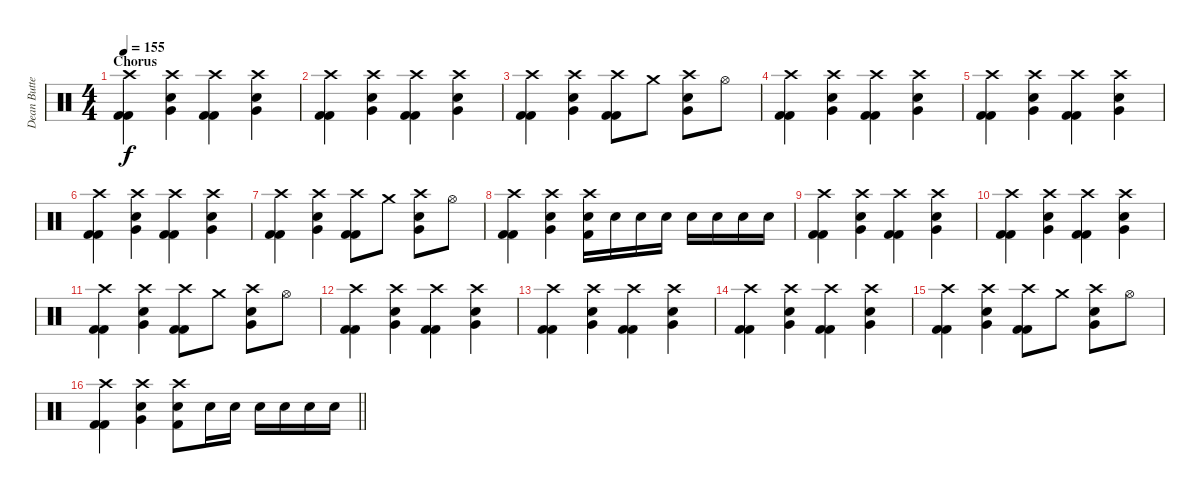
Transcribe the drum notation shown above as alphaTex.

\track ("Dean Butterworth [Drums]" "Dean Butte") {solo instrument percussion}
\staff {score}
\articulation defaults
\ts (4 4)
\section ("" "Chorus")
\tempo 155
\clef neutral
\ks c
("Crash high (hit)" "Kick (hit) 2" "Kick (hit) 2").4{dy f} ("Crash high (hit)" "Very Low Tom (hit)" "Electric Snare (hit)").4 ("Crash high (hit)" "Kick (hit) 2" "Kick (hit) 2").4 ("Crash high (hit)" "Very Low Tom (hit)" "Electric Snare (hit)").4 |
("Crash high (hit)" "Kick (hit) 2" "Kick (hit) 2").4 ("Crash high (hit)" "Very Low Tom (hit)" "Electric Snare (hit)").4 ("Crash high (hit)" "Kick (hit) 2" "Kick (hit) 2").4 ("Crash high (hit)" "Very Low Tom (hit)" "Electric Snare (hit)").4 |
("Crash high (hit)" "Kick (hit) 2" "Kick (hit) 2").4 ("Crash high (hit)" "Very Low Tom (hit)" "Electric Snare (hit)").4 ("Crash high (hit)" "Kick (hit) 2" "Kick (hit) 2").8 "Crash medium (hit)".8 ("Crash high (hit)" "Very Low Tom (hit)" "Electric Snare (hit)").8 "Hi-Hat (open)".8 |
("Crash high (hit)" "Kick (hit) 2" "Kick (hit) 2").4 ("Crash high (hit)" "Very Low Tom (hit)" "Electric Snare (hit)").4 ("Crash high (hit)" "Kick (hit) 2" "Kick (hit) 2").4 ("Crash high (hit)" "Very Low Tom (hit)" "Electric Snare (hit)").4 |
("Crash high (hit)" "Kick (hit) 2" "Kick (hit) 2").4 ("Crash high (hit)" "Very Low Tom (hit)" "Electric Snare (hit)").4 ("Crash high (hit)" "Kick (hit) 2" "Kick (hit) 2").4 ("Crash high (hit)" "Very Low Tom (hit)" "Electric Snare (hit)").4 |
("Crash high (hit)" "Kick (hit) 2" "Kick (hit) 2").4 ("Crash high (hit)" "Very Low Tom (hit)" "Electric Snare (hit)").4 ("Crash high (hit)" "Kick (hit) 2" "Kick (hit) 2").4 ("Crash high (hit)" "Very Low Tom (hit)" "Electric Snare (hit)").4 |
("Crash high (hit)" "Kick (hit) 2" "Kick (hit) 2").4 ("Crash high (hit)" "Very Low Tom (hit)" "Electric Snare (hit)").4 ("Crash high (hit)" "Kick (hit) 2" "Kick (hit) 2").8 "Crash medium (hit)".8 ("Crash high (hit)" "Very Low Tom (hit)" "Electric Snare (hit)").8 "Hi-Hat (open)".8 |
("Crash high (hit)" "Kick (hit) 2" "Kick (hit) 2").4 ("Crash high (hit)" "Very Low Tom (hit)" "Electric Snare (hit)").4 ("Crash high (hit)" "Electric Snare (hit)" "Kick (hit) 2").16 "Electric Snare (hit)".16 "Electric Snare (hit)".16 "Electric Snare (hit)".16 "Electric Snare (hit)".16 "Electric Snare (hit)".16 "Electric Snare (hit)".16 "Electric Snare (hit)".16 |
("Crash high (hit)" "Kick (hit) 2" "Kick (hit) 2").4 ("Crash high (hit)" "Very Low Tom (hit)" "Electric Snare (hit)").4 ("Crash high (hit)" "Kick (hit) 2" "Kick (hit) 2").4 ("Crash high (hit)" "Very Low Tom (hit)" "Electric Snare (hit)").4 |
("Crash high (hit)" "Kick (hit) 2" "Kick (hit) 2").4 ("Crash high (hit)" "Very Low Tom (hit)" "Electric Snare (hit)").4 ("Crash high (hit)" "Kick (hit) 2" "Kick (hit) 2").4 ("Crash high (hit)" "Very Low Tom (hit)" "Electric Snare (hit)").4 |
("Crash high (hit)" "Kick (hit) 2" "Kick (hit) 2").4 ("Crash high (hit)" "Very Low Tom (hit)" "Electric Snare (hit)").4 ("Crash high (hit)" "Kick (hit) 2" "Kick (hit) 2").8 "Crash medium (hit)".8 ("Crash high (hit)" "Very Low Tom (hit)" "Electric Snare (hit)").8 "Hi-Hat (open)".8 |
("Crash high (hit)" "Kick (hit) 2" "Kick (hit) 2").4 ("Crash high (hit)" "Very Low Tom (hit)" "Electric Snare (hit)").4 ("Crash high (hit)" "Kick (hit) 2" "Kick (hit) 2").4 ("Crash high (hit)" "Very Low Tom (hit)" "Electric Snare (hit)").4 |
("Crash high (hit)" "Kick (hit) 2" "Kick (hit) 2").4 ("Crash high (hit)" "Very Low Tom (hit)" "Electric Snare (hit)").4 ("Crash high (hit)" "Kick (hit) 2" "Kick (hit) 2").4 ("Crash high (hit)" "Very Low Tom (hit)" "Electric Snare (hit)").4 |
("Crash high (hit)" "Kick (hit) 2" "Kick (hit) 2").4 ("Crash high (hit)" "Very Low Tom (hit)" "Electric Snare (hit)").4 ("Crash high (hit)" "Kick (hit) 2" "Kick (hit) 2").4 ("Crash high (hit)" "Very Low Tom (hit)" "Electric Snare (hit)").4 |
("Crash high (hit)" "Kick (hit) 2" "Kick (hit) 2").4 ("Crash high (hit)" "Very Low Tom (hit)" "Electric Snare (hit)").4 ("Crash high (hit)" "Kick (hit) 2" "Kick (hit) 2").8 "Crash medium (hit)".8 ("Crash high (hit)" "Very Low Tom (hit)" "Electric Snare (hit)").8 "Hi-Hat (open)".8 |
\barLineRight lightlight
("Crash high (hit)" "Kick (hit) 2" "Kick (hit) 2").4 ("Crash high (hit)" "Very Low Tom (hit)" "Electric Snare (hit)").4 ("Crash high (hit)" "Electric Snare (hit)" "Kick (hit) 2").8 "Electric Snare (hit)".16 "Electric Snare (hit)".16 "Electric Snare (hit)".16 "Electric Snare (hit)".16 "Electric Snare (hit)".16 "Electric Snare (hit)".16
